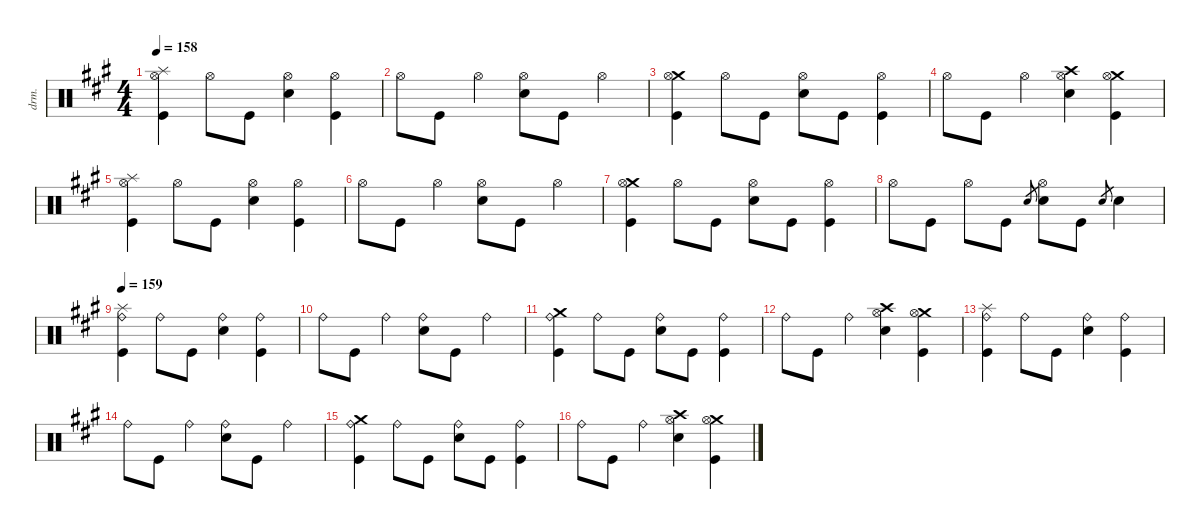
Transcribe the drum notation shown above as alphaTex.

\defaultSystemsLayout 4
\hideDynamics
\bracketExtendMode groupsimilarinstruments
\otherSystemsTrackNameOrientation horizontal
\track ("Drums" "drm.") {defaultSystemsLayout 4 instrument percussion}
\staff {score}
\articulation defaults
\ts (4 4)
\tempo 158
\clef neutral
\ks f#minor
("Splash (hit)"{acc forcenatural} "Hi-Hat (open)"{acc forcenatural} "Kick (hit)"{acc forcenatural}).4{dy f beam Down} "Hi-Hat (open)"{acc forcenatural}.8{beam Down} "Kick (hit)"{acc forcenatural}.8{dy mp beam Down} ("Hi-Hat (open)"{acc forcenatural} "Snare (hit) 2"{acc forcenatural}).4{dy f beam Down} ("Hi-Hat (open)"{acc forcenatural} "Kick (hit)"{acc forcenatural}).4{beam Down} |
"Hi-Hat (open)"{acc forcenatural}.8{beam Down} "Kick (hit)"{acc forcenatural}.8{beam Down} "Hi-Hat (open)"{acc forcenatural}.4{beam Down} ("Hi-Hat (open)"{acc forcenatural} "Snare (hit) 2"{acc forcenatural}).8{beam Down} "Kick (hit)"{acc forcenatural}.8{beam Down} "Hi-Hat (open)"{acc forcenatural}.4{beam Down} |
("Crash medium (hit)"{acc forcenatural} "Hi-Hat (open)"{acc forcenatural} "Kick (hit)"{acc forcenatural}).4{beam Down} "Hi-Hat (open)"{acc forcenatural}.8{beam Down} "Kick (hit)"{acc forcenatural}.8{dy mp beam Down} ("Hi-Hat (open)"{acc forcenatural} "Snare (hit) 2"{acc forcenatural}).8{dy f beam Down} "Kick (hit)"{acc forcenatural}.8{dy mf beam Down} ("Hi-Hat (open)"{acc forcenatural} "Kick (hit)"{acc forcenatural}).4{dy f beam Down} |
"Hi-Hat (open)"{acc forcenatural}.8{beam Down} "Kick (hit)"{acc forcenatural}.8{beam Down} "Hi-Hat (open)"{acc forcenatural}.4{beam Down} ("Crash high (hit)"{acc forcenatural} "Hi-Hat (open)"{acc forcenatural} "Snare (hit) 2"{acc forcenatural}).4{dy mf beam Down} ("Crash medium (hit)"{acc forcenatural} "Hi-Hat (open)"{acc forcenatural} "Kick (hit)"{acc forcenatural}).4{dy f beam Down} |
("Splash (hit)"{acc forcenatural} "Hi-Hat (open)"{acc forcenatural} "Kick (hit)"{acc forcenatural}).4{beam Down} "Hi-Hat (open)"{acc forcenatural}.8{beam Down} "Kick (hit)"{acc forcenatural}.8{dy mp beam Down} ("Hi-Hat (open)"{acc forcenatural} "Snare (hit) 2"{acc forcenatural}).4{dy f beam Down} ("Hi-Hat (open)"{acc forcenatural} "Kick (hit)"{acc forcenatural}).4{beam Down} |
"Hi-Hat (open)"{acc forcenatural}.8{beam Down} "Kick (hit)"{acc forcenatural}.8{beam Down} "Hi-Hat (open)"{acc forcenatural}.4{beam Down} ("Hi-Hat (open)"{acc forcenatural} "Snare (hit) 2"{acc forcenatural}).8{beam Down} "Kick (hit)"{acc forcenatural}.8{beam Down} "Hi-Hat (open)"{acc forcenatural}.4{beam Down} |
("Crash medium (hit)"{acc forcenatural} "Hi-Hat (open)"{acc forcenatural} "Kick (hit)"{acc forcenatural}).4{beam Down} "Hi-Hat (open)"{acc forcenatural}.8{beam Down} "Kick (hit)"{acc forcenatural}.8{dy mp beam Down} ("Hi-Hat (open)"{acc forcenatural} "Snare (hit) 2"{acc forcenatural}).8{dy f beam Down} "Kick (hit)"{acc forcenatural}.8{dy mf beam Down} ("Hi-Hat (open)"{acc forcenatural} "Kick (hit)"{acc forcenatural}).4{dy f beam Down} |
"Hi-Hat (open)"{acc forcenatural}.8{beam Down} "Kick (hit)"{acc forcenatural}.8{beam Down} "Hi-Hat (open)"{acc forcenatural}.8{beam Down} "Kick (hit)"{acc forcenatural}.8{beam Down} "Electric Snare (hit)"{acc forcenatural}.8{gr dy mf beam Up} ("Hi-Hat (open)"{acc forcenatural} "Snare (hit) 2"{acc forcenatural}).8{dy f beam Down} "Kick (hit)"{acc forcenatural}.8{beam Down} "Electric Snare (hit)"{acc forcenatural}.8{gr dy mf beam Up} "Snare (hit) 2"{acc forcenatural}.4{dy f beam Down} |
\tempo 159
("Splash (hit)"{acc forcenatural} "Ride (bell)"{acc forcenatural} "Kick (hit)"{acc forcenatural}).4{beam Down} "Ride (bell)"{acc forcenatural}.8{beam Down} "Kick (hit)"{acc forcenatural}.8{dy mp beam Down} ("Ride (bell)"{acc forcenatural} "Snare (hit) 2"{acc forcenatural}).4{dy f beam Down} ("Ride (bell)"{acc forcenatural} "Kick (hit)"{acc forcenatural}).4{beam Down} |
"Ride (bell)"{acc forcenatural}.8{beam Down} "Kick (hit)"{acc forcenatural}.8{beam Down} "Ride (bell)"{acc forcenatural}.4{beam Down} ("Ride (bell)"{acc forcenatural} "Snare (hit) 2"{acc forcenatural}).8{beam Down} "Kick (hit)"{acc forcenatural}.8{beam Down} "Ride (bell)"{acc forcenatural}.4{beam Down} |
("Crash medium (hit)"{acc forcenatural} "Ride (bell)"{acc forcenatural} "Kick (hit)"{acc forcenatural}).4{beam Down} "Ride (bell)"{acc forcenatural}.8{beam Down} "Kick (hit)"{acc forcenatural}.8{dy mp beam Down} ("Ride (bell)"{acc forcenatural} "Snare (hit) 2"{acc forcenatural}).8{dy f beam Down} "Kick (hit)"{acc forcenatural}.8{dy mf beam Down} ("Ride (bell)"{acc forcenatural} "Kick (hit)"{acc forcenatural}).4{dy f beam Down} |
"Ride (bell)"{acc forcenatural}.8{beam Down} "Kick (hit)"{acc forcenatural}.8{beam Down} "Ride (bell)"{acc forcenatural}.4{beam Down} ("Crash high (hit)"{acc forcenatural} "Hi-Hat (open)"{acc forcenatural} "Snare (hit) 2"{acc forcenatural}).4{dy mf beam Down} ("Crash medium (hit)"{acc forcenatural} "Hi-Hat (open)"{acc forcenatural} "Kick (hit)"{acc forcenatural}).4{dy f beam Down} |
("Splash (hit)"{acc forcenatural} "Ride (bell)"{acc forcenatural} "Kick (hit)"{acc forcenatural}).4{beam Down} "Ride (bell)"{acc forcenatural}.8{beam Down} "Kick (hit)"{acc forcenatural}.8{dy mp beam Down} ("Ride (bell)"{acc forcenatural} "Snare (hit) 2"{acc forcenatural}).4{dy f beam Down} ("Ride (bell)"{acc forcenatural} "Kick (hit)"{acc forcenatural}).4{beam Down} |
"Ride (bell)"{acc forcenatural}.8{beam Down} "Kick (hit)"{acc forcenatural}.8{beam Down} "Ride (bell)"{acc forcenatural}.4{beam Down} ("Ride (bell)"{acc forcenatural} "Snare (hit) 2"{acc forcenatural}).8{beam Down} "Kick (hit)"{acc forcenatural}.8{beam Down} "Ride (bell)"{acc forcenatural}.4{beam Down} |
("Crash medium (hit)"{acc forcenatural} "Ride (bell)"{acc forcenatural} "Kick (hit)"{acc forcenatural}).4{beam Down} "Ride (bell)"{acc forcenatural}.8{beam Down} "Kick (hit)"{acc forcenatural}.8{dy mp beam Down} ("Ride (bell)"{acc forcenatural} "Snare (hit) 2"{acc forcenatural}).8{dy f beam Down} "Kick (hit)"{acc forcenatural}.8{dy mf beam Down} ("Ride (bell)"{acc forcenatural} "Kick (hit)"{acc forcenatural}).4{dy f beam Down} |
"Ride (bell)"{acc forcenatural}.8{beam Down} "Kick (hit)"{acc forcenatural}.8{beam Down} "Ride (bell)"{acc forcenatural}.4{beam Down} ("Crash high (hit)"{acc forcenatural} "Hi-Hat (open)"{acc forcenatural} "Snare (hit) 2"{acc forcenatural}).4{dy mf beam Down} ("Crash medium (hit)"{acc forcenatural} "Hi-Hat (open)"{acc forcenatural} "Kick (hit)"{acc forcenatural}).4{dy f beam Down}
